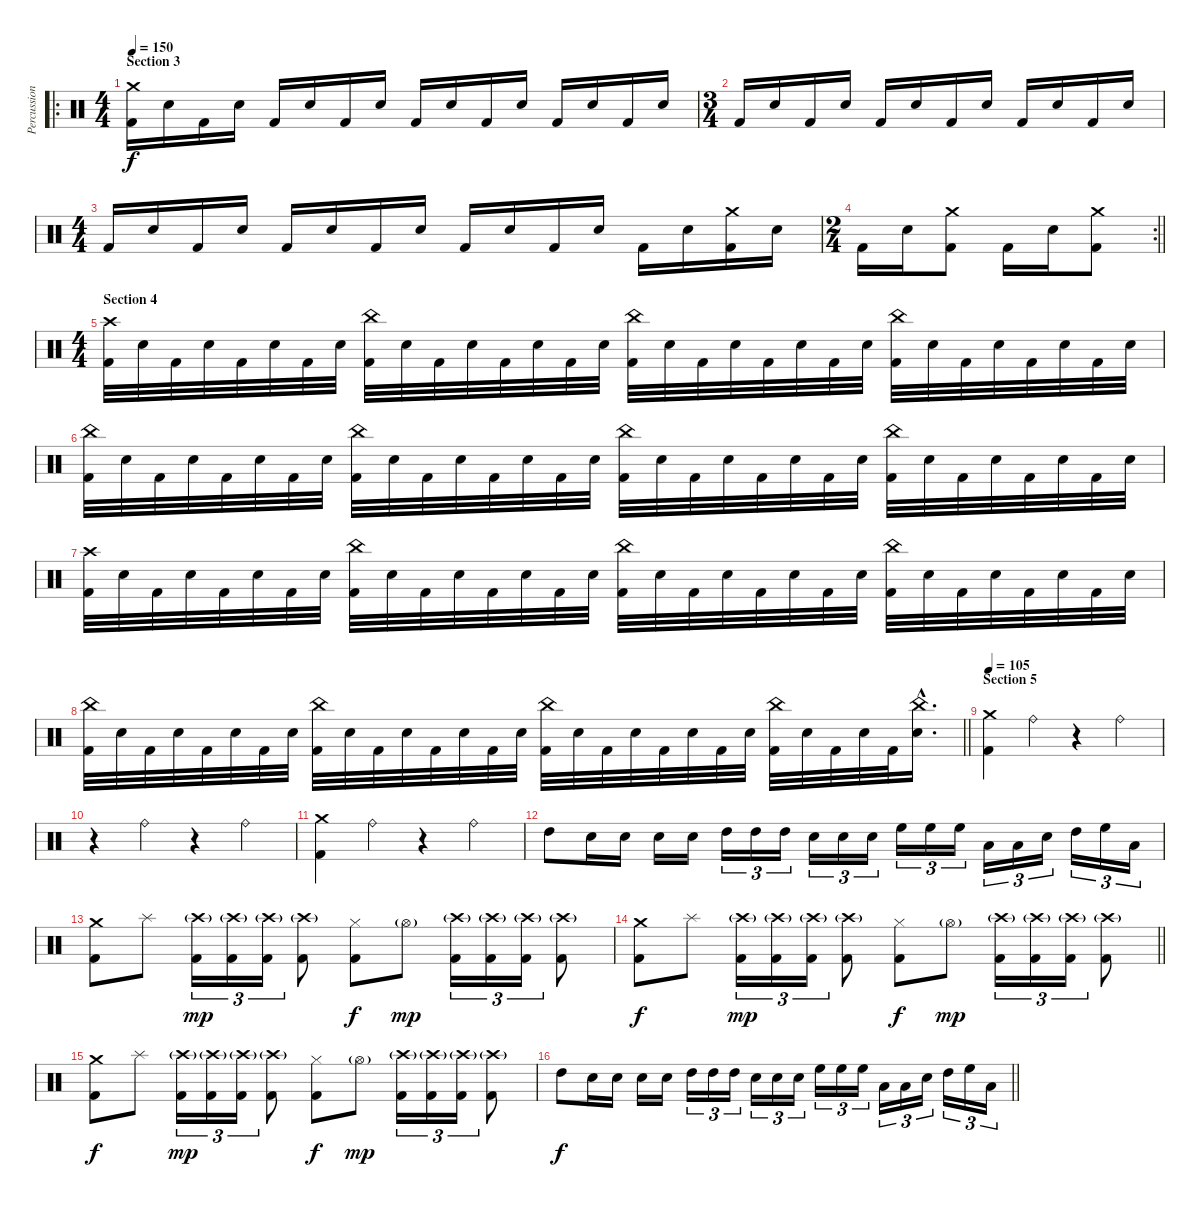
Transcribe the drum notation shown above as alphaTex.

\track ("Percussions" "Percussion") {instrument percussion}
\staff {score}
\articulation defaults
\ro
\ts (4 4)
\section ("" "Section 3")
\tempo 150
\clef neutral
\ks c
("Crash medium (hit)" "Kick (hit) 2").16{dy f} "Electric Snare (hit)".16 "Kick (hit) 2".16 "Electric Snare (hit)".16 "Kick (hit) 2".16 "Electric Snare (hit)".16 "Kick (hit) 2".16 "Electric Snare (hit)".16 "Kick (hit) 2".16 "Electric Snare (hit)".16 "Kick (hit) 2".16 "Electric Snare (hit)".16 "Kick (hit) 2".16 "Electric Snare (hit)".16 "Kick (hit) 2".16 "Electric Snare (hit)".16 |
\ts (3 4)
"Kick (hit) 2".16 "Electric Snare (hit)".16 "Kick (hit) 2".16 "Electric Snare (hit)".16 "Kick (hit) 2".16 "Electric Snare (hit)".16 "Kick (hit) 2".16 "Electric Snare (hit)".16 "Kick (hit) 2".16 "Electric Snare (hit)".16 "Kick (hit) 2".16 "Electric Snare (hit)".16 |
\ts (4 4)
"Kick (hit) 2".16 "Electric Snare (hit)".16 "Kick (hit) 2".16 "Electric Snare (hit)".16 "Kick (hit) 2".16 "Electric Snare (hit)".16 "Kick (hit) 2".16 "Electric Snare (hit)".16 "Kick (hit) 2".16 "Electric Snare (hit)".16 "Kick (hit) 2".16 "Electric Snare (hit)".16 "Kick (hit) 2".16 "Electric Snare (hit)".16 ("Crash medium (hit)" "Kick (hit) 2").16 "Electric Snare (hit)".16 |
\rc 2
\ts (2 4)
\barLineRight lightlight "Kick (hit) 2".16 "Electric Snare (hit)".16
("Crash medium (hit)" "Kick (hit) 2").8 "Kick (hit) 2".16 "Electric Snare (hit)".16 ("Crash medium (hit)" "Kick (hit) 2").8 |
\ts (4 4)
\section ("" "Section 4")
("Crash high (hit)" "Kick (hit) 2").32 "Electric Snare (hit)".32 "Kick (hit) 2".32 "Electric Snare (hit)".32 "Kick (hit) 2".32 "Electric Snare (hit)".32 "Kick (hit) 2".32 "Electric Snare (hit)".32 ("China (hit)" "Kick (hit) 2").32 "Electric Snare (hit)".32 "Kick (hit) 2".32 "Electric Snare (hit)".32 "Kick (hit) 2".32 "Electric Snare (hit)".32 "Kick (hit) 2".32 "Electric Snare (hit)".32 ("China (hit)" "Kick (hit) 2").32 "Electric Snare (hit)".32 "Kick (hit) 2".32 "Electric Snare (hit)".32 "Kick (hit) 2".32 "Electric Snare (hit)".32 "Kick (hit) 2".32 "Electric Snare (hit)".32 ("China (hit)" "Kick (hit) 2").32 "Electric Snare (hit)".32 "Kick (hit) 2".32 "Electric Snare (hit)".32 "Kick (hit) 2".32 "Electric Snare (hit)".32 "Kick (hit) 2".32 "Electric Snare (hit)".32 |
("China (hit)" "Kick (hit) 2").32 "Electric Snare (hit)".32 "Kick (hit) 2".32 "Electric Snare (hit)".32 "Kick (hit) 2".32 "Electric Snare (hit)".32 "Kick (hit) 2".32 "Electric Snare (hit)".32 ("China (hit)" "Kick (hit) 2").32 "Electric Snare (hit)".32 "Kick (hit) 2".32 "Electric Snare (hit)".32 "Kick (hit) 2".32 "Electric Snare (hit)".32 "Kick (hit) 2".32 "Electric Snare (hit)".32 ("China (hit)" "Kick (hit) 2").32 "Electric Snare (hit)".32 "Kick (hit) 2".32 "Electric Snare (hit)".32 "Kick (hit) 2".32 "Electric Snare (hit)".32 "Kick (hit) 2".32 "Electric Snare (hit)".32 ("China (hit)" "Kick (hit) 2").32 "Electric Snare (hit)".32 "Kick (hit) 2".32 "Electric Snare (hit)".32 "Kick (hit) 2".32 "Electric Snare (hit)".32 "Kick (hit) 2".32 "Electric Snare (hit)".32 |
("Crash high (hit)" "Kick (hit) 2").32 "Electric Snare (hit)".32 "Kick (hit) 2".32 "Electric Snare (hit)".32 "Kick (hit) 2".32 "Electric Snare (hit)".32 "Kick (hit) 2".32 "Electric Snare (hit)".32 ("China (hit)" "Kick (hit) 2").32 "Electric Snare (hit)".32 "Kick (hit) 2".32 "Electric Snare (hit)".32 "Kick (hit) 2".32 "Electric Snare (hit)".32 "Kick (hit) 2".32 "Electric Snare (hit)".32 ("China (hit)" "Kick (hit) 2").32 "Electric Snare (hit)".32 "Kick (hit) 2".32 "Electric Snare (hit)".32 "Kick (hit) 2".32 "Electric Snare (hit)".32 "Kick (hit) 2".32 "Electric Snare (hit)".32 ("China (hit)" "Kick (hit) 2").32 "Electric Snare (hit)".32 "Kick (hit) 2".32 "Electric Snare (hit)".32 "Kick (hit) 2".32 "Electric Snare (hit)".32 "Kick (hit) 2".32 "Electric Snare (hit)".32 |
\barLineRight lightlight
("China (hit)" "Kick (hit) 2").32 "Electric Snare (hit)".32 "Kick (hit) 2".32 "Electric Snare (hit)".32 "Kick (hit) 2".32 "Electric Snare (hit)".32 "Kick (hit) 2".32 "Electric Snare (hit)".32 ("China (hit)" "Kick (hit) 2").32 "Electric Snare (hit)".32 "Kick (hit) 2".32 "Electric Snare (hit)".32 "Kick (hit) 2".32 "Electric Snare (hit)".32 "Kick (hit) 2".32 "Electric Snare (hit)".32 ("China (hit)" "Kick (hit) 2").32 "Electric Snare (hit)".32 "Kick (hit) 2".32 "Electric Snare (hit)".32 "Kick (hit) 2".32 "Electric Snare (hit)".32 "Kick (hit) 2".32 "Electric Snare (hit)".32 ("China (hit)" "Kick (hit) 2").32 "Electric Snare (hit)".32 "Kick (hit) 2".32 "Electric Snare (hit)".32 "Kick (hit) 2".32 ("China (hit)"{hac} "Electric Snare (hit)"{hac}).16{d} |
\section ("" "Section 5")
\tempo 105
("Crash medium (hit)" "Kick (hit) 2").4 "Ride (bell)".4 r.4 "Ride (bell)".4 |
r.4 "Ride (bell)".4 r.4 "Ride (bell)".4 |
("Crash medium (hit)" "Kick (hit) 2").4 "Ride (bell)".4 r.4 "Ride (bell)".4 |
"High Tom (hit)".8 "Electric Snare (hit)".16 "Electric Snare (hit)".16 "Electric Snare (hit)".16 "Electric Snare (hit)".16 "High Tom (hit)".16{tu (3 2)} "High Tom (hit)".16{tu (3 2)} "High Tom (hit)".16{tu (3 2)} "Electric Snare (hit)".16{tu (3 2)} "Electric Snare (hit)".16{tu (3 2)} "Electric Snare (hit)".16{tu (3 2)} "High Floor Tom (hit)".16{tu (3 2)} "High Floor Tom (hit)".16{tu (3 2)} "High Floor Tom (hit)".16{tu (3 2)} "Low Floor Tom (hit)".16{tu (3 2)} "Low Floor Tom (hit)".16{tu (3 2)} "Electric Snare (hit)".16{tu (3 2)} "High Tom (hit)".16{tu (3 2)} "High Floor Tom (hit)".16{tu (3 2)} "Low Floor Tom (hit)".16{tu (3 2)} |
("Crash medium (hit)" "Kick (hit) 2").8 "Splash (hit)".8 ("Crash high (hit)"{g} "Kick (hit) 2").16{tu (3 2) dy mp} ("Crash high (hit)"{g} "Kick (hit) 2").16{tu (3 2)} ("Crash high (hit)"{g} "Kick (hit) 2").16{tu (3 2)} ("Crash high (hit)"{g} "Kick (hit) 2").8 ("Hi-Hat (closed)" "Kick (hit) 2").8{dy f} "Hi-Hat (open)"{g}.8{dy mp} ("Crash high (hit)"{g} "Kick (hit) 2").16{tu (3 2)} ("Crash high (hit)"{g} "Kick (hit) 2").16{tu (3 2)} ("Crash high (hit)"{g} "Kick (hit) 2").16{tu (3 2)} ("Crash high (hit)"{g} "Kick (hit) 2").8 |
\barLineRight lightlight
("Crash medium (hit)" "Kick (hit) 2").8{dy f} "Splash (hit)".8 ("Crash high (hit)"{g} "Kick (hit) 2").16{tu (3 2) dy mp} ("Crash high (hit)"{g} "Kick (hit) 2").16{tu (3 2)} ("Crash high (hit)"{g} "Kick (hit) 2").16{tu (3 2)} ("Crash high (hit)"{g} "Kick (hit) 2").8 ("Hi-Hat (closed)" "Kick (hit) 2").8{dy f} "Hi-Hat (open)"{g}.8{dy mp} ("Crash high (hit)"{g} "Kick (hit) 2").16{tu (3 2)} ("Crash high (hit)"{g} "Kick (hit) 2").16{tu (3 2)} ("Crash high (hit)"{g} "Kick (hit) 2").16{tu (3 2)} ("Crash high (hit)"{g} "Kick (hit) 2").8 |
("Crash medium (hit)" "Kick (hit) 2").8{dy f} "Splash (hit)".8 ("Crash high (hit)"{g} "Kick (hit) 2").16{tu (3 2) dy mp} ("Crash high (hit)"{g} "Kick (hit) 2").16{tu (3 2)} ("Crash high (hit)"{g} "Kick (hit) 2").16{tu (3 2)} ("Crash high (hit)"{g} "Kick (hit) 2").8 ("Hi-Hat (closed)" "Kick (hit) 2").8{dy f} "Hi-Hat (open)"{g}.8{dy mp} ("Crash high (hit)"{g} "Kick (hit) 2").16{tu (3 2)} ("Crash high (hit)"{g} "Kick (hit) 2").16{tu (3 2)} ("Crash high (hit)"{g} "Kick (hit) 2").16{tu (3 2)} ("Crash high (hit)"{g} "Kick (hit) 2").8 |
\barLineRight lightlight "High Tom (hit)".8{dy f} "Electric Snare (hit)".16 "Electric Snare (hit)".16 "Electric Snare (hit)".16 "Electric Snare (hit)".16 "High Tom (hit)".16{tu (3 2)} "High Tom (hit)".16{tu (3 2)} "High Tom (hit)".16{tu (3 2)} "Electric Snare (hit)".16{tu (3 2)} "Electric Snare (hit)".16{tu (3 2)} "Electric Snare (hit)".16{tu (3 2)} "High Floor Tom (hit)".16{tu (3 2)} "High Floor Tom (hit)".16{tu (3 2)} "High Floor Tom (hit)".16{tu (3 2)} "Low Floor Tom (hit)".16{tu (3 2)} "Low Floor Tom (hit)".16{tu (3 2)} "Electric Snare (hit)".16{tu (3 2)} "High Tom (hit)".16{tu (3 2)} "High Floor Tom (hit)".16{tu (3 2)} "Low Floor Tom (hit)".16{tu (3 2)}
